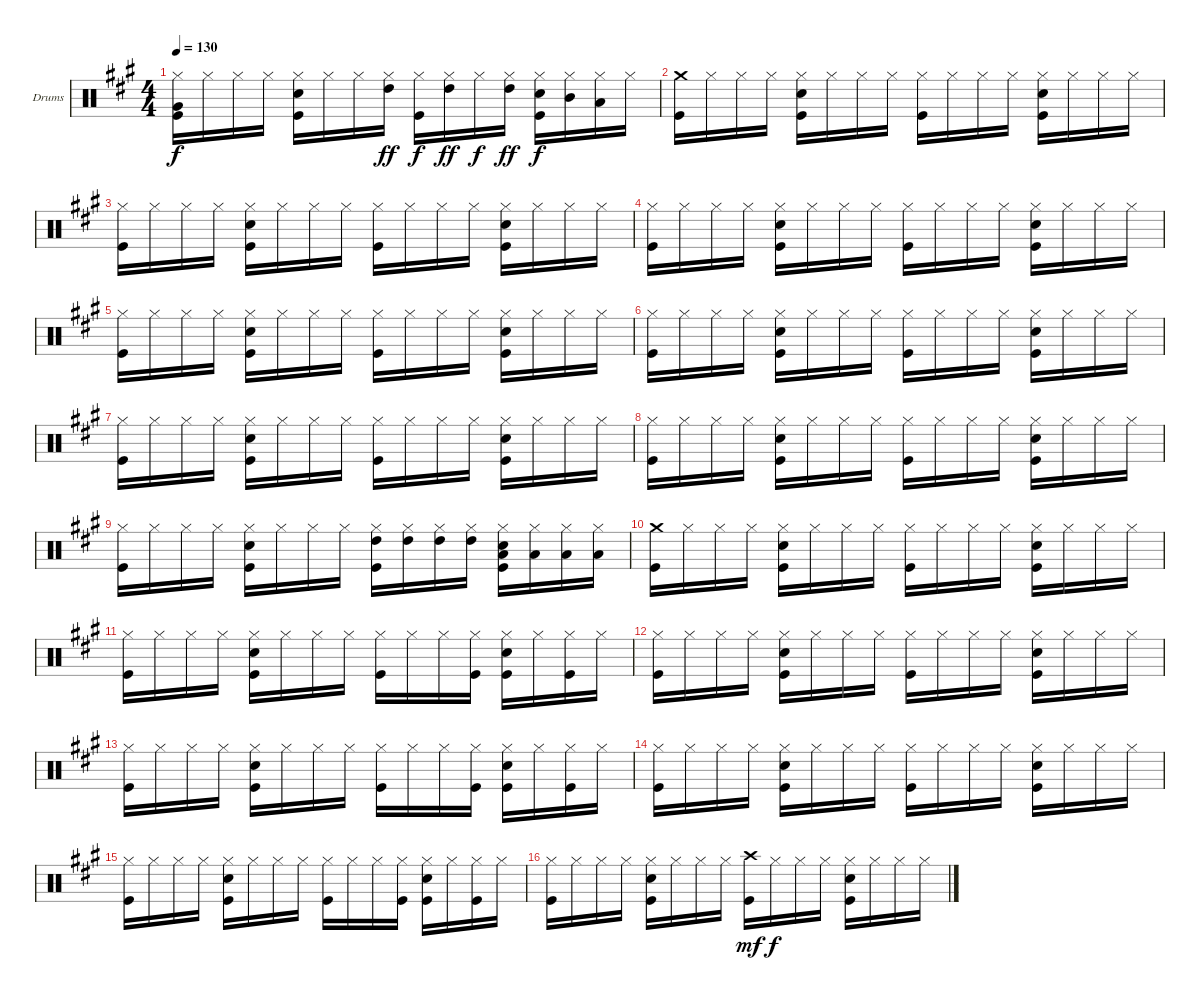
\bracketExtendMode groupsimilarinstruments
\firstSystemTrackNameOrientation horizontal
\otherSystemsTrackNameOrientation horizontal
\track ("DRUMS" "Drums") {instrument percussion}
\staff {score}
\articulation defaults
\ts (4 4)
\tempo 130
\clef neutral
\ks f#minor
("Hi-Hat (closed)" "Kick (hit)" "Very Low Tom (hit)").16{dy f} "Hi-Hat (closed)".16 "Hi-Hat (closed)".16 "Hi-Hat (closed)".16 ("Hi-Hat (closed)" "Snare (hit) 2" "Kick (hit)").16 "Hi-Hat (closed)".16 "Hi-Hat (closed)".16 ("High Tom (hit)" "Hi-Hat (closed)").16{dy ff} ("Hi-Hat (closed)" "Kick (hit)").16{dy f} ("High Tom (hit)" "Hi-Hat (closed)").16{dy ff} "Hi-Hat (closed)".16{dy f} ("High Tom (hit)" "Hi-Hat (closed)").16{dy ff} ("Hi-Hat (closed)" "Snare (hit) 2" "Kick (hit)").16{dy f} ("Hi-Hat (closed)" "Mid Tom (hit)").16 ("Low Tom (hit)" "Hi-Hat (closed)").16 "Hi-Hat (closed)".16 |
("Kick (hit)" "Crash medium (hit)").16 "Hi-Hat (closed)".16 "Hi-Hat (closed)".16 "Hi-Hat (closed)".16 ("Hi-Hat (closed)" "Snare (hit) 2" "Kick (hit)").16 "Hi-Hat (closed)".16 "Hi-Hat (closed)".16 "Hi-Hat (closed)".16 ("Hi-Hat (closed)" "Kick (hit)").16 "Hi-Hat (closed)".16 "Hi-Hat (closed)".16 "Hi-Hat (closed)".16 ("Hi-Hat (closed)" "Snare (hit) 2" "Kick (hit)").16 "Hi-Hat (closed)".16 "Hi-Hat (closed)".16 "Hi-Hat (closed)".16 |
("Hi-Hat (closed)" "Kick (hit)").16 "Hi-Hat (closed)".16 "Hi-Hat (closed)".16 "Hi-Hat (closed)".16 ("Hi-Hat (closed)" "Snare (hit) 2" "Kick (hit)").16 "Hi-Hat (closed)".16 "Hi-Hat (closed)".16 "Hi-Hat (closed)".16 ("Hi-Hat (closed)" "Kick (hit)").16 "Hi-Hat (closed)".16 "Hi-Hat (closed)".16 "Hi-Hat (closed)".16 ("Hi-Hat (closed)" "Snare (hit) 2" "Kick (hit)").16 "Hi-Hat (closed)".16 "Hi-Hat (closed)".16 "Hi-Hat (closed)".16 |
("Hi-Hat (closed)" "Kick (hit)").16 "Hi-Hat (closed)".16 "Hi-Hat (closed)".16 "Hi-Hat (closed)".16 ("Hi-Hat (closed)" "Snare (hit) 2" "Kick (hit)").16 "Hi-Hat (closed)".16 "Hi-Hat (closed)".16 "Hi-Hat (closed)".16 ("Hi-Hat (closed)" "Kick (hit)").16 "Hi-Hat (closed)".16 "Hi-Hat (closed)".16 "Hi-Hat (closed)".16 ("Hi-Hat (closed)" "Snare (hit) 2" "Kick (hit)").16 "Hi-Hat (closed)".16 "Hi-Hat (closed)".16 "Hi-Hat (closed)".16 |
("Hi-Hat (closed)" "Kick (hit)").16 "Hi-Hat (closed)".16 "Hi-Hat (closed)".16 "Hi-Hat (closed)".16 ("Hi-Hat (closed)" "Snare (hit) 2" "Kick (hit)").16 "Hi-Hat (closed)".16 "Hi-Hat (closed)".16 "Hi-Hat (closed)".16 ("Hi-Hat (closed)" "Kick (hit)").16 "Hi-Hat (closed)".16 "Hi-Hat (closed)".16 "Hi-Hat (closed)".16 ("Hi-Hat (closed)" "Snare (hit) 2" "Kick (hit)").16 "Hi-Hat (closed)".16 "Hi-Hat (closed)".16 "Hi-Hat (closed)".16 |
("Hi-Hat (closed)" "Kick (hit)").16 "Hi-Hat (closed)".16 "Hi-Hat (closed)".16 "Hi-Hat (closed)".16 ("Hi-Hat (closed)" "Snare (hit) 2" "Kick (hit)").16 "Hi-Hat (closed)".16 "Hi-Hat (closed)".16 "Hi-Hat (closed)".16 ("Hi-Hat (closed)" "Kick (hit)").16 "Hi-Hat (closed)".16 "Hi-Hat (closed)".16 "Hi-Hat (closed)".16 ("Hi-Hat (closed)" "Snare (hit) 2" "Kick (hit)").16 "Hi-Hat (closed)".16 "Hi-Hat (closed)".16 "Hi-Hat (closed)".16 |
("Hi-Hat (closed)" "Kick (hit)").16 "Hi-Hat (closed)".16 "Hi-Hat (closed)".16 "Hi-Hat (closed)".16 ("Hi-Hat (closed)" "Snare (hit) 2" "Kick (hit)").16 "Hi-Hat (closed)".16 "Hi-Hat (closed)".16 "Hi-Hat (closed)".16 ("Hi-Hat (closed)" "Kick (hit)").16 "Hi-Hat (closed)".16 "Hi-Hat (closed)".16 "Hi-Hat (closed)".16 ("Hi-Hat (closed)" "Snare (hit) 2" "Kick (hit)").16 "Hi-Hat (closed)".16 "Hi-Hat (closed)".16 "Hi-Hat (closed)".16 |
("Hi-Hat (closed)" "Kick (hit)").16 "Hi-Hat (closed)".16 "Hi-Hat (closed)".16 "Hi-Hat (closed)".16 ("Hi-Hat (closed)" "Snare (hit) 2" "Kick (hit)").16 "Hi-Hat (closed)".16 "Hi-Hat (closed)".16 "Hi-Hat (closed)".16 ("Hi-Hat (closed)" "Kick (hit)").16 "Hi-Hat (closed)".16 "Hi-Hat (closed)".16 "Hi-Hat (closed)".16 ("Hi-Hat (closed)" "Snare (hit) 2" "Kick (hit)").16 "Hi-Hat (closed)".16 "Hi-Hat (closed)".16 "Hi-Hat (closed)".16 |
("Hi-Hat (closed)" "Kick (hit)").16 "Hi-Hat (closed)".16 "Hi-Hat (closed)".16 "Hi-Hat (closed)".16 ("Hi-Hat (closed)" "Snare (hit) 2" "Kick (hit)").16 "Hi-Hat (closed)".16 "Hi-Hat (closed)".16 "Hi-Hat (closed)".16 ("High Tom (hit)" "Hi-Hat (closed)" "Kick (hit)").16 ("High Tom (hit)" "Hi-Hat (closed)").16 ("High Tom (hit)" "Hi-Hat (closed)").16 ("High Tom (hit)" "Hi-Hat (closed)").16 ("Low Tom (hit)" "Hi-Hat (closed)" "Snare (hit) 2" "Kick (hit)").16 ("Low Tom (hit)" "Hi-Hat (closed)").16 ("Low Tom (hit)" "Hi-Hat (closed)").16 ("Low Tom (hit)" "Hi-Hat (closed)").16 |
("Kick (hit)" "Crash medium (hit)").16 "Hi-Hat (closed)".16 "Hi-Hat (closed)".16 "Hi-Hat (closed)".16 ("Hi-Hat (closed)" "Snare (hit) 2" "Kick (hit)").16 "Hi-Hat (closed)".16 "Hi-Hat (closed)".16 "Hi-Hat (closed)".16 ("Hi-Hat (closed)" "Kick (hit)").16 "Hi-Hat (closed)".16 "Hi-Hat (closed)".16 "Hi-Hat (closed)".16 ("Hi-Hat (closed)" "Snare (hit) 2" "Kick (hit)").16 "Hi-Hat (closed)".16 "Hi-Hat (closed)".16 "Hi-Hat (closed)".16 |
("Hi-Hat (closed)" "Kick (hit)").16 "Hi-Hat (closed)".16 "Hi-Hat (closed)".16 "Hi-Hat (closed)".16 ("Hi-Hat (closed)" "Snare (hit) 2" "Kick (hit)").16 "Hi-Hat (closed)".16 "Hi-Hat (closed)".16 "Hi-Hat (closed)".16 ("Hi-Hat (closed)" "Kick (hit)").16 "Hi-Hat (closed)".16 "Hi-Hat (closed)".16 ("Hi-Hat (closed)" "Kick (hit)").16 ("Hi-Hat (closed)" "Snare (hit) 2" "Kick (hit)").16 "Hi-Hat (closed)".16 ("Hi-Hat (closed)" "Kick (hit)").16 "Hi-Hat (closed)".16 |
("Hi-Hat (closed)" "Kick (hit)").16 "Hi-Hat (closed)".16 "Hi-Hat (closed)".16 "Hi-Hat (closed)".16 ("Hi-Hat (closed)" "Snare (hit) 2" "Kick (hit)").16 "Hi-Hat (closed)".16 "Hi-Hat (closed)".16 "Hi-Hat (closed)".16 ("Hi-Hat (closed)" "Kick (hit)").16 "Hi-Hat (closed)".16 "Hi-Hat (closed)".16 "Hi-Hat (closed)".16 ("Hi-Hat (closed)" "Snare (hit) 2" "Kick (hit)").16 "Hi-Hat (closed)".16 "Hi-Hat (closed)".16 "Hi-Hat (closed)".16 |
("Hi-Hat (closed)" "Kick (hit)").16 "Hi-Hat (closed)".16 "Hi-Hat (closed)".16 "Hi-Hat (closed)".16 ("Hi-Hat (closed)" "Snare (hit) 2" "Kick (hit)").16 "Hi-Hat (closed)".16 "Hi-Hat (closed)".16 "Hi-Hat (closed)".16 ("Hi-Hat (closed)" "Kick (hit)").16 "Hi-Hat (closed)".16 "Hi-Hat (closed)".16 ("Hi-Hat (closed)" "Kick (hit)").16 ("Hi-Hat (closed)" "Snare (hit) 2" "Kick (hit)").16 "Hi-Hat (closed)".16 ("Hi-Hat (closed)" "Kick (hit)").16 "Hi-Hat (closed)".16 |
("Hi-Hat (closed)" "Kick (hit)").16 "Hi-Hat (closed)".16 "Hi-Hat (closed)".16 "Hi-Hat (closed)".16 ("Hi-Hat (closed)" "Snare (hit) 2" "Kick (hit)").16 "Hi-Hat (closed)".16 "Hi-Hat (closed)".16 "Hi-Hat (closed)".16 ("Hi-Hat (closed)" "Kick (hit)").16 "Hi-Hat (closed)".16 "Hi-Hat (closed)".16 "Hi-Hat (closed)".16 ("Hi-Hat (closed)" "Snare (hit) 2" "Kick (hit)").16 "Hi-Hat (closed)".16 "Hi-Hat (closed)".16 "Hi-Hat (closed)".16 |
("Hi-Hat (closed)" "Kick (hit)").16 "Hi-Hat (closed)".16 "Hi-Hat (closed)".16 "Hi-Hat (closed)".16 ("Hi-Hat (closed)" "Snare (hit) 2" "Kick (hit)").16 "Hi-Hat (closed)".16 "Hi-Hat (closed)".16 "Hi-Hat (closed)".16 ("Hi-Hat (closed)" "Kick (hit)").16 "Hi-Hat (closed)".16 "Hi-Hat (closed)".16 ("Hi-Hat (closed)" "Kick (hit)").16 ("Hi-Hat (closed)" "Snare (hit) 2" "Kick (hit)").16 "Hi-Hat (closed)".16 ("Hi-Hat (closed)" "Kick (hit)").16 "Hi-Hat (closed)".16 |
("Hi-Hat (closed)" "Kick (hit)").16 "Hi-Hat (closed)".16 "Hi-Hat (closed)".16 "Hi-Hat (closed)".16 ("Hi-Hat (closed)" "Snare (hit) 2" "Kick (hit)").16 "Hi-Hat (closed)".16 "Hi-Hat (closed)".16 "Hi-Hat (closed)".16 ("Crash high (hit)" "Kick (hit)").16{dy mf} "Hi-Hat (closed)".16{dy f} "Hi-Hat (closed)".16 "Hi-Hat (closed)".16 ("Hi-Hat (closed)" "Snare (hit) 2" "Kick (hit)").16 "Hi-Hat (closed)".16 "Hi-Hat (closed)".16 "Hi-Hat (closed)".16
